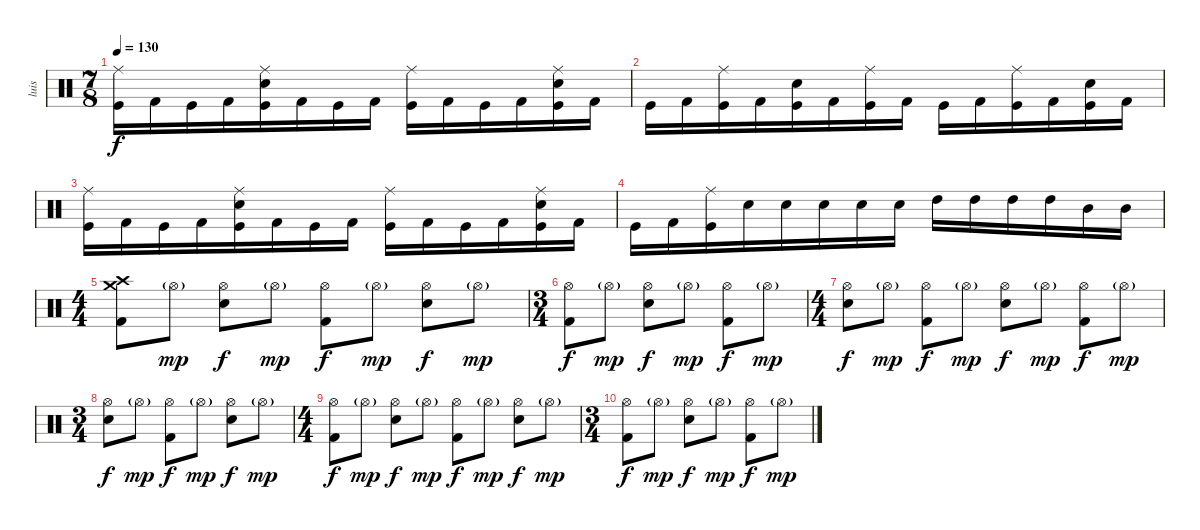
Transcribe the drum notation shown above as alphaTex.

\track ("luis" "luis") {instrument percussion}
\staff {score}
\articulation defaults
\ts (7 8)
\tempo 130
\clef neutral
\ks c
("Ride (middle)" "Kick (hit)").16{dy f} "Kick (hit) 2".16 "Kick (hit)".16 "Kick (hit) 2".16 ("Ride (middle)" "Snare (hit) 2" "Kick (hit)").16 "Kick (hit) 2".16 "Kick (hit)".16 "Kick (hit) 2".16 ("Ride (middle)" "Kick (hit)").16 "Kick (hit) 2".16 "Kick (hit)".16 "Kick (hit) 2".16 ("Ride (middle)" "Snare (hit) 2" "Kick (hit)").16 "Kick (hit) 2".16 |
"Kick (hit)".16 "Kick (hit) 2".16 ("Ride (middle)" "Kick (hit)").16 "Kick (hit) 2".16 ("Snare (hit) 2" "Kick (hit)").16 "Kick (hit) 2".16 ("Ride (middle)" "Kick (hit)").16 "Kick (hit) 2".16 "Kick (hit)".16 "Kick (hit) 2".16 ("Ride (middle)" "Kick (hit)").16 "Kick (hit) 2".16 ("Snare (hit) 2" "Kick (hit)").16 "Kick (hit) 2".16 |
("Ride (middle)" "Kick (hit)").16 "Kick (hit) 2".16 "Kick (hit)".16 "Kick (hit) 2".16 ("Ride (middle)" "Snare (hit) 2" "Kick (hit)").16 "Kick (hit) 2".16 "Kick (hit)".16 "Kick (hit) 2".16 ("Ride (middle)" "Kick (hit)").16 "Kick (hit) 2".16 "Kick (hit)".16 "Kick (hit) 2".16 ("Ride (middle)" "Snare (hit) 2" "Kick (hit)").16 "Kick (hit) 2".16 |
"Kick (hit)".16 "Kick (hit) 2".16 ("Ride (middle)" "Kick (hit)").16 "Snare (hit) 2".16 "Snare (hit) 2".16 "Snare (hit) 2".16 "Snare (hit) 2".16 "Snare (hit) 2".16 "High Tom (hit)".16 "High Tom (hit)".16 "High Tom (hit)".16 "High Tom (hit)".16 "Mid Tom (hit)".16 "Mid Tom (hit)".16 |
\ts (4 4)
("Crash medium (hit)" "Crash high (hit)" "Kick (hit) 2").8 "Hi-Hat (open)"{g}.8{dy mp} ("Hi-Hat (open)" "Snare (hit) 2").8{dy f} "Hi-Hat (open)"{g}.8{dy mp} ("Hi-Hat (open)" "Kick (hit) 2").8{dy f} "Hi-Hat (open)"{g}.8{dy mp} ("Hi-Hat (open)" "Snare (hit) 2").8{dy f} "Hi-Hat (open)"{g}.8{dy mp} |
\ts (3 4)
("Hi-Hat (open)" "Kick (hit) 2").8{dy f} "Hi-Hat (open)"{g}.8{dy mp} ("Hi-Hat (open)" "Snare (hit) 2").8{dy f} "Hi-Hat (open)"{g}.8{dy mp} ("Hi-Hat (open)" "Kick (hit) 2").8{dy f} "Hi-Hat (open)"{g}.8{dy mp} |
\ts (4 4)
("Hi-Hat (open)" "Snare (hit) 2").8{dy f} "Hi-Hat (open)"{g}.8{dy mp} ("Hi-Hat (open)" "Kick (hit) 2").8{dy f} "Hi-Hat (open)"{g}.8{dy mp} ("Hi-Hat (open)" "Snare (hit) 2").8{dy f} "Hi-Hat (open)"{g}.8{dy mp} ("Hi-Hat (open)" "Kick (hit) 2").8{dy f} "Hi-Hat (open)"{g}.8{dy mp} |
\ts (3 4)
("Hi-Hat (open)" "Snare (hit) 2").8{dy f} "Hi-Hat (open)"{g}.8{dy mp} ("Hi-Hat (open)" "Kick (hit) 2").8{dy f} "Hi-Hat (open)"{g}.8{dy mp} ("Hi-Hat (open)" "Snare (hit) 2").8{dy f} "Hi-Hat (open)"{g}.8{dy mp} |
\ts (4 4)
("Hi-Hat (open)" "Kick (hit) 2").8{dy f} "Hi-Hat (open)"{g}.8{dy mp} ("Hi-Hat (open)" "Snare (hit) 2").8{dy f} "Hi-Hat (open)"{g}.8{dy mp} ("Hi-Hat (open)" "Kick (hit) 2").8{dy f} "Hi-Hat (open)"{g}.8{dy mp} ("Hi-Hat (open)" "Snare (hit) 2").8{dy f} "Hi-Hat (open)"{g}.8{dy mp} |
\ts (3 4)
("Hi-Hat (open)" "Kick (hit) 2").8{dy f} "Hi-Hat (open)"{g}.8{dy mp} ("Hi-Hat (open)" "Snare (hit) 2").8{dy f} "Hi-Hat (open)"{g}.8{dy mp} ("Hi-Hat (open)" "Kick (hit) 2").8{dy f} "Hi-Hat (open)"{g}.8{dy mp}
